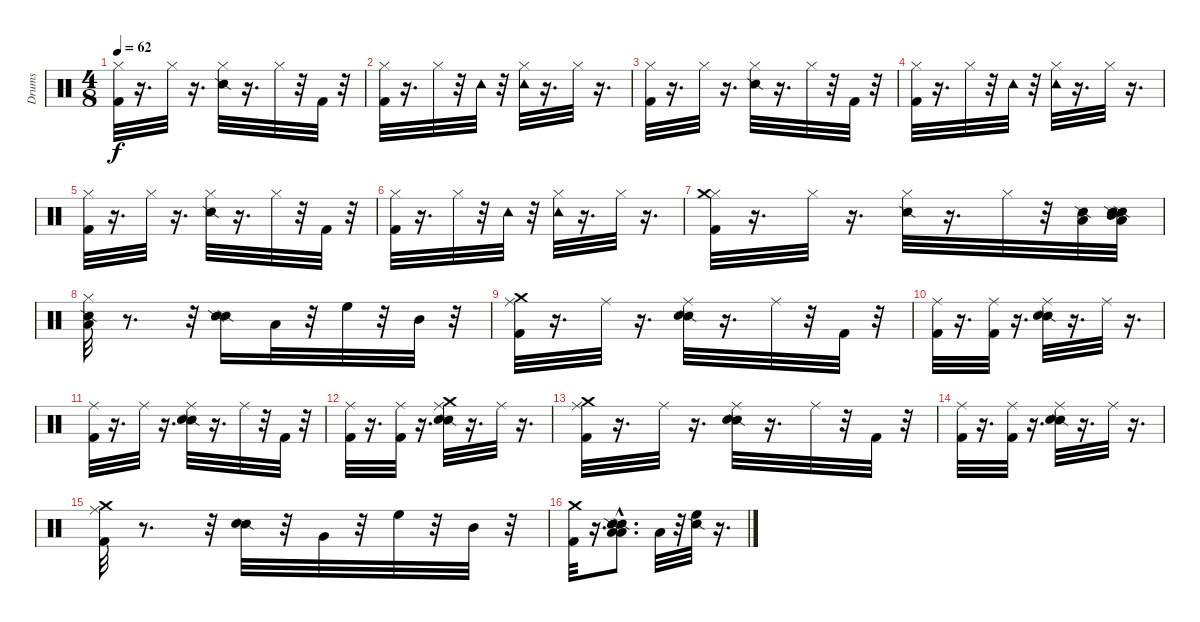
\track ("Drums" "Drums") {instrument percussion}
\staff {score}
\articulation defaults
\ts (4 8)
\tempo 62
\clef neutral
\ks c
("Kick (hit) 2" "Hi-Hat (closed)").32{dy f} r.16{d} "Hi-Hat (closed)".32 r.16{d} ("Snare (side stick) 2" "Hi-Hat (closed)").32 r.16{d} "Hi-Hat (closed)".32 r.32 "Kick (hit) 2".32 r.32 |
("Kick (hit) 2" "Hi-Hat (closed)").32 r.16{d} "Hi-Hat (closed)".32 r.32 "Tambourine (hit)".32 r.32 ("Hi-Hat (closed)" "Tambourine (hit)").32 r.16{d} "Hi-Hat (closed)".32 r.16{d} |
("Kick (hit) 2" "Hi-Hat (closed)").32 r.16{d} "Hi-Hat (closed)".32 r.16{d} ("Snare (side stick) 2" "Hi-Hat (closed)").32 r.16{d} "Hi-Hat (closed)".32 r.32 "Kick (hit) 2".32 r.32 |
("Kick (hit) 2" "Hi-Hat (closed)").32 r.16{d} "Hi-Hat (closed)".32 r.32 "Tambourine (hit)".32 r.32 ("Hi-Hat (closed)" "Tambourine (hit)").32 r.16{d} "Hi-Hat (closed)".32 r.16{d} |
("Kick (hit) 2" "Hi-Hat (closed)").32 r.16{d} "Hi-Hat (closed)".32 r.16{d} ("Snare (side stick) 2" "Hi-Hat (closed)").32 r.16{d} "Hi-Hat (closed)".32 r.32 "Kick (hit) 2".32 r.32 |
("Kick (hit) 2" "Hi-Hat (closed)").32 r.16{d} "Hi-Hat (closed)".32 r.32 "Tambourine (hit)".32 r.32 ("Hi-Hat (closed)" "Tambourine (hit)").32 r.16{d} "Hi-Hat (closed)".32 r.16{d} |
("Kick (hit) 2" "Hi-Hat (closed)" "Crash medium (hit)").32 r.16{d} "Hi-Hat (closed)".32 r.16{d} ("Snare (side stick) 2" "Hi-Hat (closed)").32 r.16{d} "Hi-Hat (closed)".32 r.32 ("Low Tom (hit)" "Snare (side stick) 2").32 ("Mid Tom (hit)" "Snare (side stick) 2" "Low Tom (hit)" "Snare (side stick) 2").32 |
("Low Floor Tom (hit)" "Snare (side stick) 2" "Hi-Hat (closed)").32 r.8{d} r.32 ("Snare (side stick) 2" "Snare (side stick) 2").16 "Low Tom (hit)".32 r.32 "High Floor Tom (hit)".32 r.32 "Mid Tom (hit)".32 r.32 |
("Kick (hit) 2" "Ride (middle)" "Crash medium (hit)").32 r.16{d} "Ride (middle)".32 r.16{d} ("Snare (side stick) 2" "Snare (hit) 2" "Ride (middle)").32 r.16{d} "Ride (middle)".32 r.32 "Kick (hit) 2".32 r.32 |
("Kick (hit) 2" "Ride (middle)").32 r.16{d} ("Kick (hit) 2" "Ride (middle)").32 r.16{d} ("Snare (side stick) 2" "Snare (hit) 2" "Ride (middle)").32 r.16{d} "Ride (middle)".32 r.16{d} |
("Kick (hit) 2" "Ride (middle)").32 r.16{d} "Ride (middle)".32 r.16{d} ("Snare (side stick) 2" "Snare (hit) 2" "Ride (middle)").32 r.16{d} "Ride (middle)".32 r.32 "Kick (hit) 2".32 r.32 |
("Kick (hit) 2" "Ride (middle)").32 r.16{d} ("Kick (hit) 2" "Ride (middle)").32 r.16{d} ("Snare (side stick) 2" "Snare (hit) 2" "Ride (middle)" "Crash medium (hit)").32 r.16{d} "Ride (middle)".32 r.16{d} |
("Kick (hit) 2" "Ride (middle)" "Crash medium (hit)").32 r.16{d} "Ride (middle)".32 r.16{d} ("Snare (side stick) 2" "Snare (hit) 2" "Ride (middle)").32 r.16{d} "Ride (middle)".32 r.32 "Kick (hit) 2".32 r.32 |
("Kick (hit) 2" "Ride (middle)").32 r.16{d} ("Kick (hit) 2" "Ride (middle)").32 r.16{d} ("Snare (side stick) 2" "Snare (hit) 2" "Ride (middle)").32 r.16{d} "Ride (middle)".32 r.16{d} |
("Kick (hit) 2" "Ride (middle)" "Crash medium (hit)").32 r.8{d} r.32 ("Snare (side stick) 2" "Snare (hit) 2").32 r.32 "Very Low Tom (hit)".32 r.32 "High Floor Tom (hit)".32 r.32 "Mid Tom (hit)".32 r.32 |
("Kick (hit) 2" "Crash medium (hit)").32 r.16{d} ("Low Tom (hit)"{hac} "Snare (side stick) 2"{hac} "Low Tom (hit)" "Snare (side stick) 2").8{d} "Low Tom (hit)".32 r.32 ("High Floor Tom (hit)" "Snare (side stick) 2").32 r.16{d}
